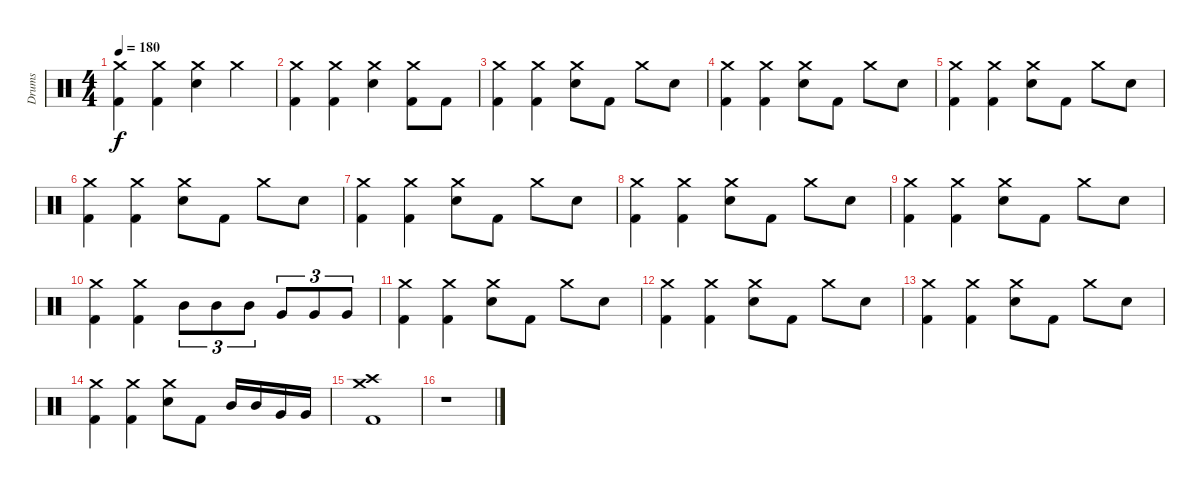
\track ("Drums" "Drums") {instrument percussion}
\staff {score}
\articulation defaults
\ts (4 4)
\tempo 180
\clef neutral
\ks c
("Crash medium (hit)" "Kick (hit) 2").4{dy f} ("Crash medium (hit)" "Kick (hit) 2").4 ("Crash medium (hit)" "Snare (hit) 2").4 "Crash medium (hit)".4 |
("Crash medium (hit)" "Kick (hit) 2").4 ("Crash medium (hit)" "Kick (hit) 2").4 ("Crash medium (hit)" "Snare (hit) 2").4 ("Crash medium (hit)" "Kick (hit) 2").8 "Kick (hit) 2".8 |
("Crash medium (hit)" "Kick (hit) 2").4 ("Crash medium (hit)" "Kick (hit) 2").4 ("Crash medium (hit)" "Snare (hit) 2").8 "Kick (hit) 2".8 "Crash medium (hit)".8 "Snare (hit) 2".8 |
("Crash medium (hit)" "Kick (hit) 2").4 ("Crash medium (hit)" "Kick (hit) 2").4 ("Crash medium (hit)" "Snare (hit) 2").8 "Kick (hit) 2".8 "Crash medium (hit)".8 "Snare (hit) 2".8 |
("Crash medium (hit)" "Kick (hit) 2").4 ("Crash medium (hit)" "Kick (hit) 2").4 ("Crash medium (hit)" "Snare (hit) 2").8 "Kick (hit) 2".8 "Crash medium (hit)".8 "Snare (hit) 2".8 |
("Crash medium (hit)" "Kick (hit) 2").4 ("Crash medium (hit)" "Kick (hit) 2").4 ("Crash medium (hit)" "Snare (hit) 2").8 "Kick (hit) 2".8 "Crash medium (hit)".8 "Snare (hit) 2".8 |
("Crash medium (hit)" "Kick (hit) 2").4 ("Crash medium (hit)" "Kick (hit) 2").4 ("Crash medium (hit)" "Snare (hit) 2").8 "Kick (hit) 2".8 "Crash medium (hit)".8 "Snare (hit) 2".8 |
("Crash medium (hit)" "Kick (hit) 2").4 ("Crash medium (hit)" "Kick (hit) 2").4 ("Crash medium (hit)" "Snare (hit) 2").8 "Kick (hit) 2".8 "Crash medium (hit)".8 "Snare (hit) 2".8 |
("Crash medium (hit)" "Kick (hit) 2").4 ("Crash medium (hit)" "Kick (hit) 2").4 ("Crash medium (hit)" "Snare (hit) 2").8 "Kick (hit) 2".8 "Crash medium (hit)".8 "Snare (hit) 2".8 |
("Crash medium (hit)" "Kick (hit) 2").4 ("Crash medium (hit)" "Kick (hit) 2").4 "Mid Tom (hit)".8{tu (3 2)} "Mid Tom (hit)".8{tu (3 2)} "Mid Tom (hit)".8{tu (3 2)} "Very Low Tom (hit)".8{tu (3 2)} "Very Low Tom (hit)".8{tu (3 2)} "Very Low Tom (hit)".8{tu (3 2)} |
("Crash medium (hit)" "Kick (hit) 2").4 ("Crash medium (hit)" "Kick (hit) 2").4 ("Crash medium (hit)" "Snare (hit) 2").8 "Kick (hit) 2".8 "Crash medium (hit)".8 "Snare (hit) 2".8 |
("Crash medium (hit)" "Kick (hit) 2").4 ("Crash medium (hit)" "Kick (hit) 2").4 ("Crash medium (hit)" "Snare (hit) 2").8 "Kick (hit) 2".8 "Crash medium (hit)".8 "Snare (hit) 2".8 |
("Crash medium (hit)" "Kick (hit) 2").4 ("Crash medium (hit)" "Kick (hit) 2").4 ("Crash medium (hit)" "Snare (hit) 2").8 "Kick (hit) 2".8 "Crash medium (hit)".8 "Snare (hit) 2".8 |
("Crash medium (hit)" "Kick (hit) 2").4 ("Crash medium (hit)" "Kick (hit) 2").4 ("Crash medium (hit)" "Snare (hit) 2").8 "Kick (hit) 2".8 "Mid Tom (hit)".16 "Mid Tom (hit)".16 "Very Low Tom (hit)".16 "Very Low Tom (hit)".16 |
("Crash medium (hit)" "Crash high (hit)" "Kick (hit) 2").1 |
r.1
